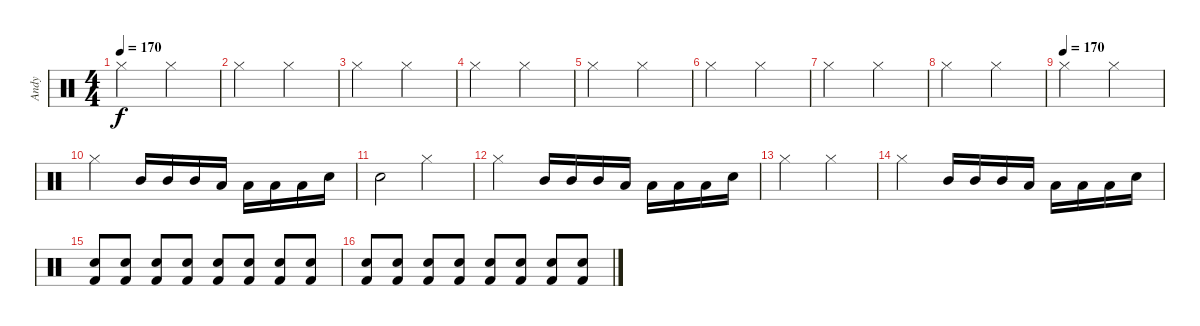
\track ("Andy" "Andy") {instrument percussion}
\staff {score}
\articulation defaults
\ts (4 4)
\tempo 180
\tempo 170
\clef neutral
\ks c "Hi-Hat (closed)".2{dy f} "Hi-Hat (closed)".2
|
"Hi-Hat (closed)".2 "Hi-Hat (closed)".2 |
"Hi-Hat (closed)".2 "Hi-Hat (closed)".2 |
"Hi-Hat (closed)".2 "Hi-Hat (closed)".2 |
"Hi-Hat (closed)".2 "Hi-Hat (closed)".2 |
"Hi-Hat (closed)".2 "Hi-Hat (closed)".2 |
"Hi-Hat (closed)".2 "Hi-Hat (closed)".2 |
"Hi-Hat (closed)".2 "Hi-Hat (closed)".2 |
\tempo 180
\tempo (170)
"Hi-Hat (closed)".2 "Hi-Hat (closed)".2 |
"Hi-Hat (closed)".2 "Mid Tom (hit)".16 "Mid Tom (hit)".16 "Mid Tom (hit)".16 "Low Tom (hit)".16 "Low Tom (hit)".16 "Low Tom (hit)".16 "Low Tom (hit)".16 "Electric Snare (hit)".16 |
"Snare (hit)".2 "Hi-Hat (closed)".2 |
"Hi-Hat (closed)".2 "Mid Tom (hit)".16 "Mid Tom (hit)".16 "Mid Tom (hit)".16 "Low Tom (hit)".16 "Low Tom (hit)".16 "Low Tom (hit)".16 "Low Tom (hit)".16 "Electric Snare (hit)".16 |
"Hi-Hat (closed)".2 "Hi-Hat (closed)".2 |
"Hi-Hat (closed)".2 "Mid Tom (hit)".16 "Mid Tom (hit)".16 "Mid Tom (hit)".16 "Low Tom (hit)".16 "Low Tom (hit)".16 "Low Tom (hit)".16 "Low Tom (hit)".16 "Electric Snare (hit)".16 |
("Electric Snare (hit)" "Kick (hit) 2").8 ("Electric Snare (hit)" "Kick (hit) 2").8 ("Electric Snare (hit)" "Kick (hit) 2").8 ("Electric Snare (hit)" "Kick (hit) 2").8 ("Electric Snare (hit)" "Kick (hit) 2").8 ("Electric Snare (hit)" "Kick (hit) 2").8 ("Electric Snare (hit)" "Kick (hit) 2").8 ("Electric Snare (hit)" "Kick (hit) 2").8 |
("Electric Snare (hit)" "Kick (hit) 2").8 ("Electric Snare (hit)" "Kick (hit) 2").8 ("Electric Snare (hit)" "Kick (hit) 2").8 ("Electric Snare (hit)" "Kick (hit) 2").8 ("Electric Snare (hit)" "Kick (hit) 2").8 ("Electric Snare (hit)" "Kick (hit) 2").8 ("Electric Snare (hit)" "Kick (hit) 2").8 ("Electric Snare (hit)" "Kick (hit) 2").8
